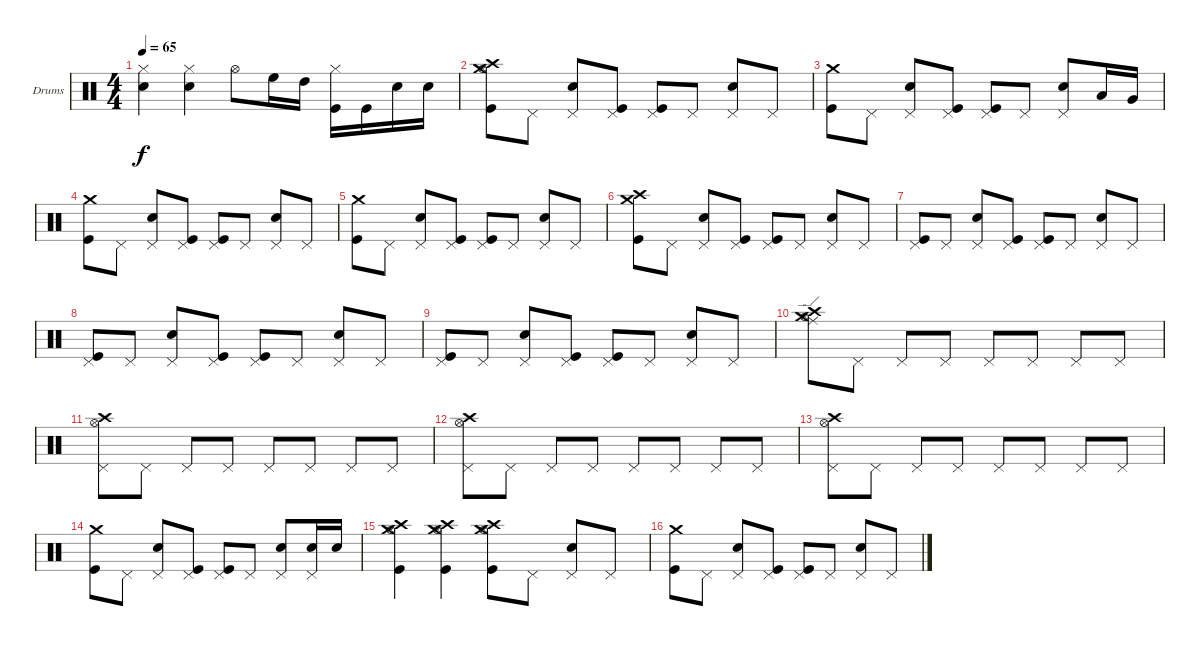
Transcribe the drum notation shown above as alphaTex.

\bracketExtendMode groupsimilarinstruments
\firstSystemTrackNameOrientation horizontal
\otherSystemsTrackNameOrientation horizontal
\track ("Drumkit" "Drums") {instrument percussion}
\staff {score}
\articulation defaults
\ts (4 4)
\tempo 65
\clef neutral
\ks c
("Hi-Hat (closed)" "Snare (hit) 2").4{dy f} ("Snare (hit) 2" "Hi-Hat (closed)").4 "Hi-Hat (open)".8 "High Floor Tom (hit)".16 "High Tom (hit)".16 ("Kick (hit)" "Hi-Hat (closed)").16 "Kick (hit)".16 "Snare (hit) 2".16 "Snare (hit) 2".16 |
("Crash medium (hit)" "Kick (hit)" "Crash high (hit)" "Hi-Hat (open)").8 "Pedal Hi-Hat (hit)".8 ("Pedal Hi-Hat (hit)" "Snare (hit) 2").8 ("Pedal Hi-Hat (hit)" "Kick (hit)").8 ("Pedal Hi-Hat (hit)" "Kick (hit)").8 "Pedal Hi-Hat (hit)".8 ("Pedal Hi-Hat (hit)" "Snare (hit) 2").8 "Pedal Hi-Hat (hit)".8 |
("Crash medium (hit)" "Kick (hit)").8 "Pedal Hi-Hat (hit)".8 ("Pedal Hi-Hat (hit)" "Snare (hit) 2").8 ("Pedal Hi-Hat (hit)" "Kick (hit)").8 ("Pedal Hi-Hat (hit)" "Kick (hit)").8 "Pedal Hi-Hat (hit)".8 ("Pedal Hi-Hat (hit)" "Snare (hit) 2").8 "Low Tom (hit)".16 "Very Low Tom (hit)".16 |
("Crash medium (hit)" "Kick (hit)").8 "Pedal Hi-Hat (hit)".8 ("Pedal Hi-Hat (hit)" "Snare (hit) 2").8 ("Pedal Hi-Hat (hit)" "Kick (hit)").8 ("Pedal Hi-Hat (hit)" "Kick (hit)").8 "Pedal Hi-Hat (hit)".8 ("Pedal Hi-Hat (hit)" "Snare (hit) 2").8 "Pedal Hi-Hat (hit)".8 |
("Crash medium (hit)" "Kick (hit)").8 "Pedal Hi-Hat (hit)".8 ("Pedal Hi-Hat (hit)" "Snare (hit) 2").8 ("Pedal Hi-Hat (hit)" "Kick (hit)").8 ("Pedal Hi-Hat (hit)" "Kick (hit)").8 "Pedal Hi-Hat (hit)".8 ("Pedal Hi-Hat (hit)" "Snare (hit) 2").8 "Pedal Hi-Hat (hit)".8 |
("Crash medium (hit)" "Kick (hit)" "Crash high (hit)").8 "Pedal Hi-Hat (hit)".8 ("Pedal Hi-Hat (hit)" "Snare (hit) 2").8 ("Pedal Hi-Hat (hit)" "Kick (hit)").8 ("Pedal Hi-Hat (hit)" "Kick (hit)").8 "Pedal Hi-Hat (hit)".8 ("Pedal Hi-Hat (hit)" "Snare (hit) 2").8 "Pedal Hi-Hat (hit)".8 |
("Pedal Hi-Hat (hit)" "Kick (hit)").8 "Pedal Hi-Hat (hit)".8 ("Pedal Hi-Hat (hit)" "Snare (hit) 2").8 ("Pedal Hi-Hat (hit)" "Kick (hit)").8 ("Pedal Hi-Hat (hit)" "Kick (hit)").8 "Pedal Hi-Hat (hit)".8 ("Pedal Hi-Hat (hit)" "Snare (hit) 2").8 "Pedal Hi-Hat (hit)".8 |
("Pedal Hi-Hat (hit)" "Kick (hit)").8 "Pedal Hi-Hat (hit)".8 ("Pedal Hi-Hat (hit)" "Snare (hit) 2").8 ("Pedal Hi-Hat (hit)" "Kick (hit)").8 ("Pedal Hi-Hat (hit)" "Kick (hit)").8 "Pedal Hi-Hat (hit)".8 ("Pedal Hi-Hat (hit)" "Snare (hit) 2").8 "Pedal Hi-Hat (hit)".8 |
("Pedal Hi-Hat (hit)" "Kick (hit)").8 "Pedal Hi-Hat (hit)".8 ("Pedal Hi-Hat (hit)" "Snare (hit) 2").8 ("Pedal Hi-Hat (hit)" "Kick (hit)").8 ("Pedal Hi-Hat (hit)" "Kick (hit)").8 "Pedal Hi-Hat (hit)".8 ("Pedal Hi-Hat (hit)" "Snare (hit) 2").8 "Pedal Hi-Hat (hit)".8 |
("Crash medium (hit)" "Crash high (hit)" "Hi-Hat (open)" "Ride (edge)").8 "Pedal Hi-Hat (hit)".8 "Pedal Hi-Hat (hit)".8 "Pedal Hi-Hat (hit)".8 "Pedal Hi-Hat (hit)".8 "Pedal Hi-Hat (hit)".8 "Pedal Hi-Hat (hit)".8 "Pedal Hi-Hat (hit)".8 |
("Pedal Hi-Hat (hit)" "Crash high (hit)" "Hi-Hat (open)").8 "Pedal Hi-Hat (hit)".8 "Pedal Hi-Hat (hit)".8 "Pedal Hi-Hat (hit)".8 "Pedal Hi-Hat (hit)".8 "Pedal Hi-Hat (hit)".8 "Pedal Hi-Hat (hit)".8 "Pedal Hi-Hat (hit)".8 |
("Pedal Hi-Hat (hit)" "Crash high (hit)" "Hi-Hat (open)").8 "Pedal Hi-Hat (hit)".8 "Pedal Hi-Hat (hit)".8 "Pedal Hi-Hat (hit)".8 "Pedal Hi-Hat (hit)".8 "Pedal Hi-Hat (hit)".8 "Pedal Hi-Hat (hit)".8 "Pedal Hi-Hat (hit)".8 |
("Pedal Hi-Hat (hit)" "Crash high (hit)" "Hi-Hat (open)").8 "Pedal Hi-Hat (hit)".8 "Pedal Hi-Hat (hit)".8 "Pedal Hi-Hat (hit)".8 "Pedal Hi-Hat (hit)".8 "Pedal Hi-Hat (hit)".8 "Pedal Hi-Hat (hit)".8 "Pedal Hi-Hat (hit)".8 |
("Crash medium (hit)" "Kick (hit)").8 "Pedal Hi-Hat (hit)".8 ("Pedal Hi-Hat (hit)" "Snare (hit) 2").8 ("Pedal Hi-Hat (hit)" "Kick (hit)").8 ("Pedal Hi-Hat (hit)" "Kick (hit)").8 "Pedal Hi-Hat (hit)".8 ("Pedal Hi-Hat (hit)" "Snare (hit) 2").8 ("Pedal Hi-Hat (hit)" "Snare (hit) 2").16 "Snare (hit) 2".16 |
("Crash high (hit)" "Crash medium (hit)" "Hi-Hat (open)" "Kick (hit)").4 ("Crash high (hit)" "Crash medium (hit)" "Hi-Hat (open)" "Kick (hit)").4 ("Crash high (hit)" "Crash medium (hit)" "Hi-Hat (open)" "Kick (hit)").8 "Pedal Hi-Hat (hit)".8 ("Pedal Hi-Hat (hit)" "Snare (hit) 2").8 "Pedal Hi-Hat (hit)".8 |
("Crash medium (hit)" "Kick (hit)").8 "Pedal Hi-Hat (hit)".8 ("Pedal Hi-Hat (hit)" "Snare (hit) 2").8 ("Pedal Hi-Hat (hit)" "Kick (hit)").8 ("Pedal Hi-Hat (hit)" "Kick (hit)").8 "Pedal Hi-Hat (hit)".8 ("Pedal Hi-Hat (hit)" "Snare (hit) 2").8 "Pedal Hi-Hat (hit)".8
